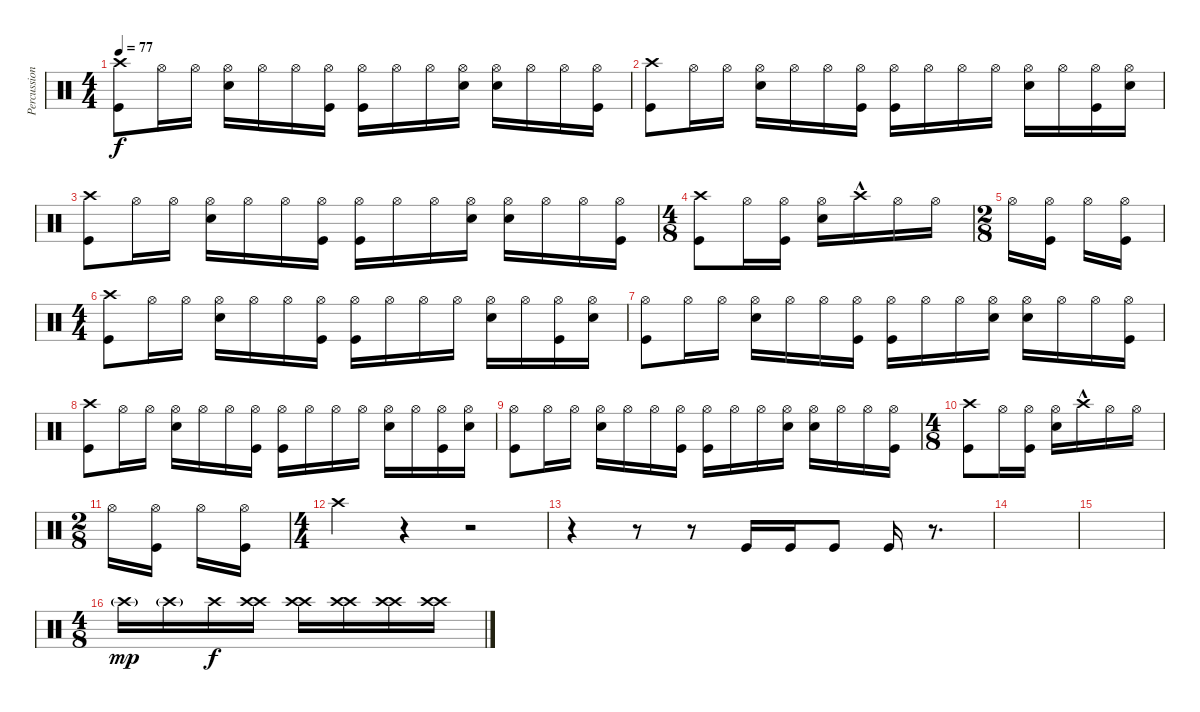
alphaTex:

\track ("Percussion" "Percussion") {instrument percussion}
\staff {score}
\articulation defaults
\ts (4 4)
\tempo 77
\clef neutral
\ks c
("Crash high (hit)" "Kick (hit)").8{dy f} "Hi-Hat (open)".16 "Hi-Hat (open)".16 ("Hi-Hat (open)" "Snare (hit) 2").16 "Hi-Hat (open)".16 "Hi-Hat (open)".16 ("Hi-Hat (open)" "Kick (hit)").16 ("Hi-Hat (open)" "Kick (hit)").16 "Hi-Hat (open)".16 "Hi-Hat (open)".16 ("Hi-Hat (open)" "Snare (hit) 2").16 ("Hi-Hat (open)" "Snare (hit) 2").16 "Hi-Hat (open)".16 "Hi-Hat (open)".16 ("Hi-Hat (open)" "Kick (hit)").16 |
("Crash high (hit)" "Kick (hit)").8 "Hi-Hat (open)".16 "Hi-Hat (open)".16 ("Hi-Hat (open)" "Snare (hit) 2").16 "Hi-Hat (open)".16 "Hi-Hat (open)".16 ("Hi-Hat (open)" "Kick (hit)").16 ("Hi-Hat (open)" "Kick (hit)").16 "Hi-Hat (open)".16 "Hi-Hat (open)".16 "Hi-Hat (open)".16 ("Hi-Hat (open)" "Snare (hit) 2").16 "Hi-Hat (open)".16 ("Hi-Hat (open)" "Kick (hit)").16 ("Hi-Hat (open)" "Snare (hit) 2").16 |
("Crash high (hit)" "Kick (hit)").8 "Hi-Hat (open)".16 "Hi-Hat (open)".16 ("Hi-Hat (open)" "Snare (hit) 2").16 "Hi-Hat (open)".16 "Hi-Hat (open)".16 ("Hi-Hat (open)" "Kick (hit)").16 ("Hi-Hat (open)" "Kick (hit)").16 "Hi-Hat (open)".16 "Hi-Hat (open)".16 ("Hi-Hat (open)" "Snare (hit) 2").16 ("Hi-Hat (open)" "Snare (hit) 2").16 "Hi-Hat (open)".16 "Hi-Hat (open)".16 ("Hi-Hat (open)" "Kick (hit)").16 |
\ts (4 8)
("Crash high (hit)" "Kick (hit)").8 "Hi-Hat (open)".16 ("Hi-Hat (open)" "Kick (hit)").16 ("Hi-Hat (open)" "Snare (hit) 2").16 "Crash high (hit)"{hac}.16 "Hi-Hat (open)".16 "Hi-Hat (open)".16 |
\ts (2 8)
"Hi-Hat (open)".16 ("Hi-Hat (open)" "Kick (hit)").16 "Hi-Hat (open)".16 ("Hi-Hat (open)" "Kick (hit)").16 |
\ts (4 4)
("Crash high (hit)" "Kick (hit)").8 "Hi-Hat (open)".16 "Hi-Hat (open)".16 ("Hi-Hat (open)" "Snare (hit) 2").16 "Hi-Hat (open)".16 "Hi-Hat (open)".16 ("Hi-Hat (open)" "Kick (hit)").16 ("Hi-Hat (open)" "Kick (hit)").16 "Hi-Hat (open)".16 "Hi-Hat (open)".16 "Hi-Hat (open)".16 ("Hi-Hat (open)" "Snare (hit) 2").16 "Hi-Hat (open)".16 ("Hi-Hat (open)" "Kick (hit)").16 ("Hi-Hat (open)" "Snare (hit) 2").16 |
("Hi-Hat (open)" "Kick (hit)").8 "Hi-Hat (open)".16 "Hi-Hat (open)".16 ("Hi-Hat (open)" "Snare (hit) 2").16 "Hi-Hat (open)".16 "Hi-Hat (open)".16 ("Hi-Hat (open)" "Kick (hit)").16 ("Hi-Hat (open)" "Kick (hit)").16 "Hi-Hat (open)".16 "Hi-Hat (open)".16 ("Hi-Hat (open)" "Snare (hit) 2").16 ("Hi-Hat (open)" "Snare (hit) 2").16 "Hi-Hat (open)".16 "Hi-Hat (open)".16 ("Hi-Hat (open)" "Kick (hit)").16 |
("Crash high (hit)" "Kick (hit)").8 "Hi-Hat (open)".16 "Hi-Hat (open)".16 ("Hi-Hat (open)" "Snare (hit) 2").16 "Hi-Hat (open)".16 "Hi-Hat (open)".16 ("Hi-Hat (open)" "Kick (hit)").16 ("Hi-Hat (open)" "Kick (hit)").16 "Hi-Hat (open)".16 "Hi-Hat (open)".16 "Hi-Hat (open)".16 ("Hi-Hat (open)" "Snare (hit) 2").16 "Hi-Hat (open)".16 ("Hi-Hat (open)" "Kick (hit)").16 ("Hi-Hat (open)" "Snare (hit) 2").16 |
("Hi-Hat (open)" "Kick (hit)").8 "Hi-Hat (open)".16 "Hi-Hat (open)".16 ("Hi-Hat (open)" "Snare (hit) 2").16 "Hi-Hat (open)".16 "Hi-Hat (open)".16 ("Hi-Hat (open)" "Kick (hit)").16 ("Hi-Hat (open)" "Kick (hit)").16 "Hi-Hat (open)".16 "Hi-Hat (open)".16 ("Hi-Hat (open)" "Snare (hit) 2").16 ("Hi-Hat (open)" "Snare (hit) 2").16 "Hi-Hat (open)".16 "Hi-Hat (open)".16 ("Hi-Hat (open)" "Kick (hit)").16 |
\ts (4 8)
("Crash high (hit)" "Kick (hit)").8 "Hi-Hat (open)".16 ("Hi-Hat (open)" "Kick (hit)").16 ("Hi-Hat (open)" "Snare (hit) 2").16 "Crash high (hit)"{hac}.16 "Hi-Hat (open)".16 "Hi-Hat (open)".16 |
\ts (2 8)
"Hi-Hat (open)".16 ("Hi-Hat (open)" "Kick (hit)").16 "Hi-Hat (open)".16 ("Hi-Hat (open)" "Kick (hit)").16 |
\ts (4 4)
"Crash high (hit)".4 r.4 r.2 |
r.4 r.8 r.8 "Kick (hit)".16 "Kick (hit)".16 "Kick (hit)".8 "Kick (hit)".16 r.8{d} |
|
|
\ts (4 8)
"Crash high (hit)"{g}.16{dy mp} "Crash high (hit)"{g}.16 "Crash high (hit)".16{dy f} ("Crash high (hit)" "Crash high (hit)").16 ("Crash high (hit)" "Crash high (hit)").16 ("Crash high (hit)" "Crash high (hit)").16 ("Crash high (hit)" "Crash high (hit)").16 ("Crash high (hit)" "Crash high (hit)").16
